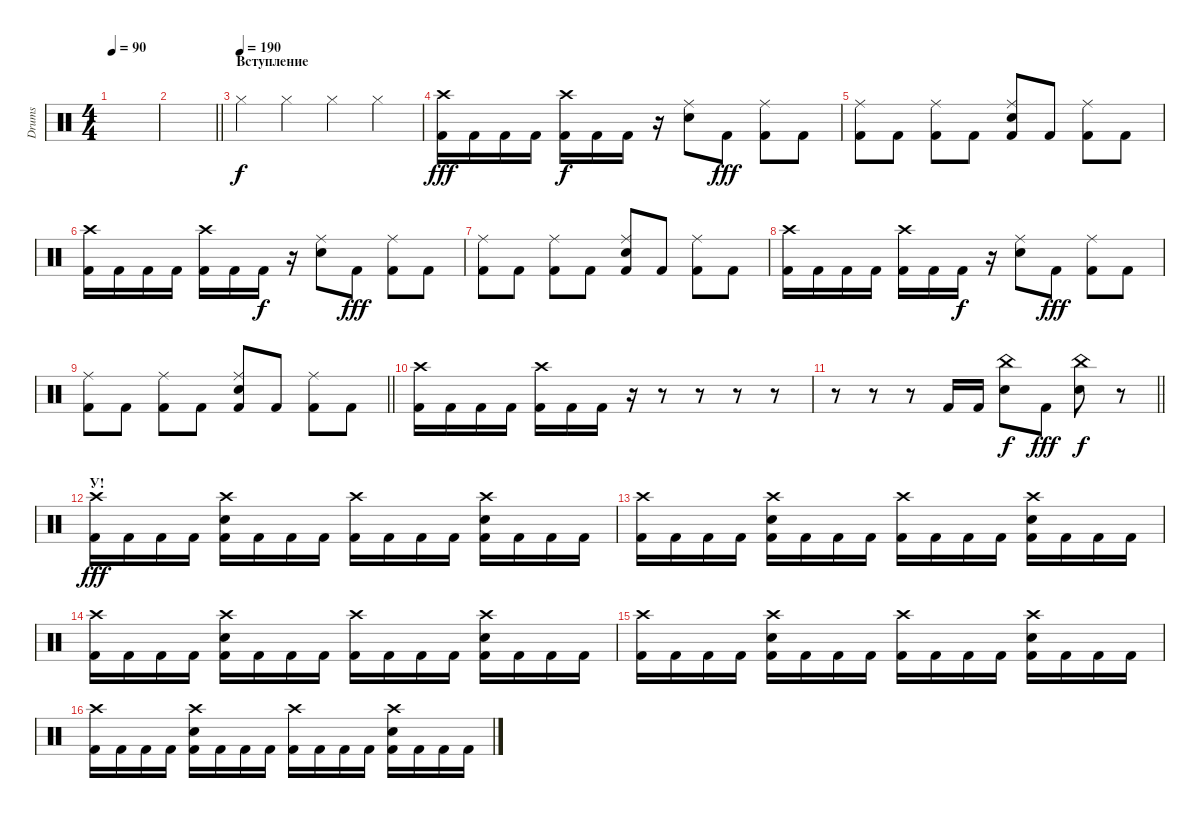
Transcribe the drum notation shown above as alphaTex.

\track ("Drums" "Drums") {instrument percussion}
\staff {score}
\articulation defaults
\ts (4 4)
\tempo 90
\clef neutral
\ks c
|
\barLineRight lightlight
|
\section ("" "Вступление")
\tempo (190)
"Hi-Hat (closed)".4 "Hi-Hat (closed)".4 "Hi-Hat (closed)".4 "Hi-Hat (closed)".4 |
("Crash high (hit)" "Kick (hit) 2").16{dy fff} "Kick (hit) 2".16 "Kick (hit) 2".16 "Kick (hit) 2".16 ("Crash high (hit)" "Kick (hit) 2").16{dy f} "Kick (hit) 2".16 "Kick (hit) 2".16 r.16 ("Ride (middle)" "Electric Snare (hit)").8 "Kick (hit) 2".8{dy fff} ("Ride (middle)" "Kick (hit) 2").8 "Kick (hit) 2".8 |
("Ride (middle)" "Kick (hit) 2").8 "Kick (hit) 2".8 ("Ride (middle)" "Kick (hit) 2").8 "Kick (hit) 2".8 ("Ride (middle)" "Electric Snare (hit)" "Kick (hit) 2").8 "Kick (hit) 2".8 ("Ride (middle)" "Kick (hit) 2").8 "Kick (hit) 2".8 |
("Crash high (hit)" "Kick (hit) 2").16 "Kick (hit) 2".16 "Kick (hit) 2".16 "Kick (hit) 2".16 ("Crash high (hit)" "Kick (hit) 2").16 "Kick (hit) 2".16 "Kick (hit) 2".16{dy f} r.16 ("Ride (middle)" "Electric Snare (hit)").8 "Kick (hit) 2".8{dy fff} ("Ride (middle)" "Kick (hit) 2").8 "Kick (hit) 2".8 |
("Ride (middle)" "Kick (hit) 2").8 "Kick (hit) 2".8 ("Ride (middle)" "Kick (hit) 2").8 "Kick (hit) 2".8 ("Ride (middle)" "Electric Snare (hit)" "Kick (hit) 2").8 "Kick (hit) 2".8 ("Ride (middle)" "Kick (hit) 2").8 "Kick (hit) 2".8 |
("Crash high (hit)" "Kick (hit) 2").16 "Kick (hit) 2".16 "Kick (hit) 2".16 "Kick (hit) 2".16 ("Crash high (hit)" "Kick (hit) 2").16 "Kick (hit) 2".16 "Kick (hit) 2".16{dy f} r.16 ("Ride (middle)" "Electric Snare (hit)").8 "Kick (hit) 2".8{dy fff} ("Ride (middle)" "Kick (hit) 2").8 "Kick (hit) 2".8 |
\barLineRight lightlight
("Ride (middle)" "Kick (hit) 2").8 "Kick (hit) 2".8 ("Ride (middle)" "Kick (hit) 2").8 "Kick (hit) 2".8 ("Ride (middle)" "Electric Snare (hit)" "Kick (hit) 2").8 "Kick (hit) 2".8 ("Ride (middle)" "Kick (hit) 2").8 "Kick (hit) 2".8 |
\section ("" "")
("Crash high (hit)" "Kick (hit) 2").16 "Kick (hit) 2".16 "Kick (hit) 2".16 "Kick (hit) 2".16 ("Crash high (hit)" "Kick (hit) 2").16 "Kick (hit) 2".16 "Kick (hit) 2".16 r.16 r.8 r.8 r.8 r.8 |
\barLineRight lightlight
r.8 r.8 r.8 "Kick (hit) 2".16 "Kick (hit) 2".16 ("China (hit)" "Electric Snare (hit)").8{dy f} "Kick (hit) 2".8{dy fff} ("China (hit)" "Electric Snare (hit)").8{dy f} r.8 |
\section ("" "У!")
("Crash high (hit)" "Kick (hit) 2").16{dy fff} "Kick (hit) 2".16 "Kick (hit) 2".16 "Kick (hit) 2".16 ("Crash high (hit)" "Electric Snare (hit)" "Kick (hit) 2").16 "Kick (hit) 2".16 "Kick (hit) 2".16 "Kick (hit) 2".16 ("Crash high (hit)" "Kick (hit) 2").16 "Kick (hit) 2".16 "Kick (hit) 2".16 "Kick (hit) 2".16 ("Crash high (hit)" "Electric Snare (hit)" "Kick (hit) 2").16 "Kick (hit) 2".16 "Kick (hit) 2".16 "Kick (hit) 2".16 |
("Crash high (hit)" "Kick (hit) 2").16 "Kick (hit) 2".16 "Kick (hit) 2".16 "Kick (hit) 2".16 ("Crash high (hit)" "Electric Snare (hit)" "Kick (hit) 2").16 "Kick (hit) 2".16 "Kick (hit) 2".16 "Kick (hit) 2".16 ("Crash high (hit)" "Kick (hit) 2").16 "Kick (hit) 2".16 "Kick (hit) 2".16 "Kick (hit) 2".16 ("Crash high (hit)" "Electric Snare (hit)" "Kick (hit) 2").16 "Kick (hit) 2".16 "Kick (hit) 2".16 "Kick (hit) 2".16 |
("Crash high (hit)" "Kick (hit) 2").16 "Kick (hit) 2".16 "Kick (hit) 2".16 "Kick (hit) 2".16 ("Crash high (hit)" "Electric Snare (hit)" "Kick (hit) 2").16 "Kick (hit) 2".16 "Kick (hit) 2".16 "Kick (hit) 2".16 ("Crash high (hit)" "Kick (hit) 2").16 "Kick (hit) 2".16 "Kick (hit) 2".16 "Kick (hit) 2".16 ("Crash high (hit)" "Electric Snare (hit)" "Kick (hit) 2").16 "Kick (hit) 2".16 "Kick (hit) 2".16 "Kick (hit) 2".16 |
("Crash high (hit)" "Kick (hit) 2").16 "Kick (hit) 2".16 "Kick (hit) 2".16 "Kick (hit) 2".16 ("Crash high (hit)" "Electric Snare (hit)" "Kick (hit) 2").16 "Kick (hit) 2".16 "Kick (hit) 2".16 "Kick (hit) 2".16 ("Crash high (hit)" "Kick (hit) 2").16 "Kick (hit) 2".16 "Kick (hit) 2".16 "Kick (hit) 2".16 ("Crash high (hit)" "Electric Snare (hit)" "Kick (hit) 2").16 "Kick (hit) 2".16 "Kick (hit) 2".16 "Kick (hit) 2".16 |
("Crash high (hit)" "Kick (hit) 2").16 "Kick (hit) 2".16 "Kick (hit) 2".16 "Kick (hit) 2".16 ("Crash high (hit)" "Electric Snare (hit)" "Kick (hit) 2").16 "Kick (hit) 2".16 "Kick (hit) 2".16 "Kick (hit) 2".16 ("Crash high (hit)" "Kick (hit) 2").16 "Kick (hit) 2".16 "Kick (hit) 2".16 "Kick (hit) 2".16 ("Crash high (hit)" "Electric Snare (hit)" "Kick (hit) 2").16 "Kick (hit) 2".16 "Kick (hit) 2".16 "Kick (hit) 2".16
